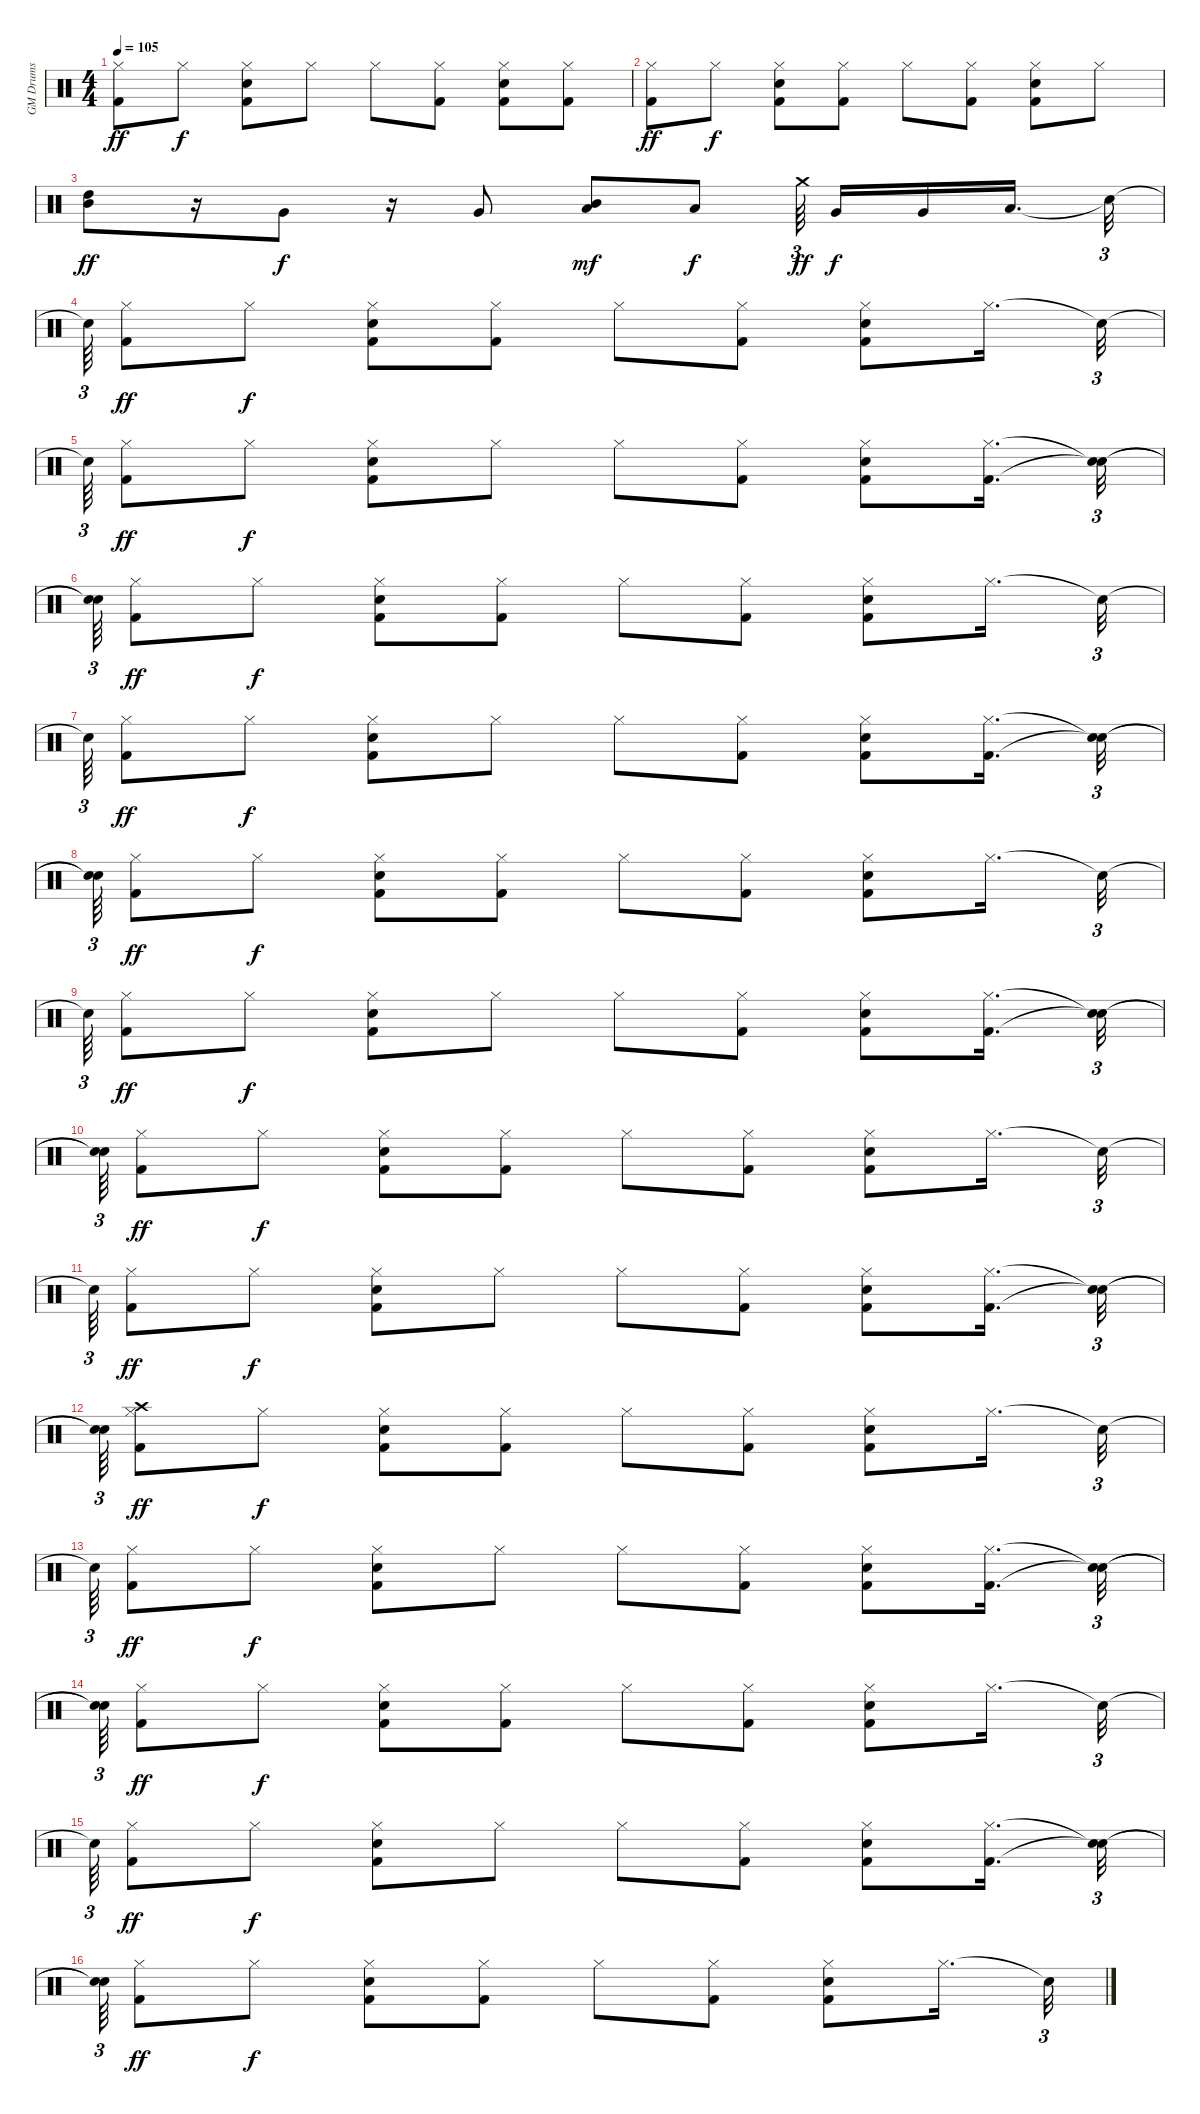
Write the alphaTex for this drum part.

\track ("GM Drums" "GM Drums") {instrument percussion}
\staff {score}
\articulation defaults
\ts (4 4)
\tempo 105
\clef neutral
\ks c
("Kick (hit) 2" "Hi-Hat (closed)").8{dy ff} "Hi-Hat (closed)".8{dy f} ("Kick (hit) 2" "Electric Snare (hit)" "Hi-Hat (closed)").8 "Hi-Hat (closed)".8 "Hi-Hat (closed)".8 ("Kick (hit) 2" "Hi-Hat (closed)").8 ("Kick (hit) 2" "Electric Snare (hit)" "Hi-Hat (closed)").8 ("Kick (hit) 2" "Hi-Hat (closed)").8 |
("Kick (hit) 2" "Hi-Hat (closed)").8{dy ff} "Hi-Hat (closed)".8{dy f} ("Kick (hit) 2" "Electric Snare (hit)" "Hi-Hat (closed)").8 ("Kick (hit) 2" "Hi-Hat (closed)").8 "Hi-Hat (closed)".8 ("Kick (hit) 2" "Hi-Hat (closed)").8 ("Kick (hit) 2" "Electric Snare (hit)" "Hi-Hat (closed)").8 "Hi-Hat (closed)".8 |
("Mid Tom (hit)" "High Tom (hit)").8{dy ff} r.16 "Very Low Tom (hit)".8{dy f} r.16 "Very Low Tom (hit)".8 ("Low Tom (hit)" "Mid Tom (hit)").8{dy mf} "Low Tom (hit)".8{dy f} "Crash medium (hit)".64{tu (3 2) dy ff beam splitsecondary} "Very Low Tom (hit)".16{dy f} "Very Low Tom (hit)".16 "Low Floor Tom (hit)".16{d beam splitsecondary} "Snare (hit)"{t}.32{tu (3 2)} |
"Snare (hit)"{t}.64{tu (3 2)} ("Kick (hit) 2" "Hi-Hat (closed)").8{dy ff} "Hi-Hat (closed)".8{dy f} ("Kick (hit) 2" "Electric Snare (hit)" "Hi-Hat (closed)").8 ("Kick (hit) 2" "Hi-Hat (closed)").8 "Hi-Hat (closed)".8 ("Kick (hit) 2" "Hi-Hat (closed)").8 ("Kick (hit) 2" "Electric Snare (hit)" "Hi-Hat (closed)").8 "Hi-Hat (closed)".16{d} "Snare (hit)"{t}.32{tu (3 2)} |
"Snare (hit)"{t}.64{tu (3 2)} ("Kick (hit) 2" "Hi-Hat (closed)").8{dy ff} "Hi-Hat (closed)".8{dy f} ("Kick (hit) 2" "Electric Snare (hit)" "Hi-Hat (closed)").8 "Hi-Hat (closed)".8 "Hi-Hat (closed)".8 ("Kick (hit) 2" "Hi-Hat (closed)").8 ("Kick (hit) 2" "Electric Snare (hit)" "Hi-Hat (closed)").8 ("Kick (hit) 2" "Hi-Hat (closed)").16{d} ("Snare (hit)"{t} "Snare (hit)"{t}).32{tu (3 2)} |
("Snare (hit)"{t} "Snare (hit)"{t}).64{tu (3 2)} ("Kick (hit) 2" "Hi-Hat (closed)").8{dy ff} "Hi-Hat (closed)".8{dy f} ("Kick (hit) 2" "Electric Snare (hit)" "Hi-Hat (closed)").8 ("Kick (hit) 2" "Hi-Hat (closed)").8 "Hi-Hat (closed)".8 ("Kick (hit) 2" "Hi-Hat (closed)").8 ("Kick (hit) 2" "Electric Snare (hit)" "Hi-Hat (closed)").8 "Hi-Hat (closed)".16{d} "Snare (hit)"{t}.32{tu (3 2)} |
"Snare (hit)"{t}.64{tu (3 2)} ("Kick (hit) 2" "Hi-Hat (closed)").8{dy ff} "Hi-Hat (closed)".8{dy f} ("Kick (hit) 2" "Electric Snare (hit)" "Hi-Hat (closed)").8 "Hi-Hat (closed)".8 "Hi-Hat (closed)".8 ("Kick (hit) 2" "Hi-Hat (closed)").8 ("Kick (hit) 2" "Electric Snare (hit)" "Hi-Hat (closed)").8 ("Kick (hit) 2" "Hi-Hat (closed)").16{d} ("Snare (hit)"{t} "Snare (hit)"{t}).32{tu (3 2)} |
("Snare (hit)"{t} "Snare (hit)"{t}).64{tu (3 2)} ("Kick (hit) 2" "Hi-Hat (closed)").8{dy ff} "Hi-Hat (closed)".8{dy f} ("Kick (hit) 2" "Electric Snare (hit)" "Hi-Hat (closed)").8 ("Kick (hit) 2" "Hi-Hat (closed)").8 "Hi-Hat (closed)".8 ("Kick (hit) 2" "Hi-Hat (closed)").8 ("Kick (hit) 2" "Electric Snare (hit)" "Hi-Hat (closed)").8 "Hi-Hat (closed)".16{d} "Snare (hit)"{t}.32{tu (3 2)} |
"Snare (hit)"{t}.64{tu (3 2)} ("Kick (hit) 2" "Hi-Hat (closed)").8{dy ff} "Hi-Hat (closed)".8{dy f} ("Kick (hit) 2" "Electric Snare (hit)" "Hi-Hat (closed)").8 "Hi-Hat (closed)".8 "Hi-Hat (closed)".8 ("Kick (hit) 2" "Hi-Hat (closed)").8 ("Kick (hit) 2" "Electric Snare (hit)" "Hi-Hat (closed)").8 ("Kick (hit) 2" "Hi-Hat (closed)").16{d} ("Snare (hit)"{t} "Snare (hit)"{t}).32{tu (3 2)} |
("Snare (hit)"{t} "Snare (hit)"{t}).64{tu (3 2)} ("Kick (hit) 2" "Hi-Hat (closed)").8{dy ff} "Hi-Hat (closed)".8{dy f} ("Kick (hit) 2" "Electric Snare (hit)" "Hi-Hat (closed)").8 ("Kick (hit) 2" "Hi-Hat (closed)").8 "Hi-Hat (closed)".8 ("Kick (hit) 2" "Hi-Hat (closed)").8 ("Kick (hit) 2" "Electric Snare (hit)" "Hi-Hat (closed)").8 "Hi-Hat (closed)".16{d} "Snare (hit)"{t}.32{tu (3 2)} |
"Snare (hit)"{t}.64{tu (3 2)} ("Kick (hit) 2" "Hi-Hat (closed)").8{dy ff} "Hi-Hat (closed)".8{dy f} ("Kick (hit) 2" "Electric Snare (hit)" "Hi-Hat (closed)").8 "Hi-Hat (closed)".8 "Hi-Hat (closed)".8 ("Kick (hit) 2" "Hi-Hat (closed)").8 ("Kick (hit) 2" "Electric Snare (hit)" "Hi-Hat (closed)").8 ("Kick (hit) 2" "Hi-Hat (closed)").16{d} ("Snare (hit)"{t} "Snare (hit)"{t}).32{tu (3 2)} |
("Snare (hit)"{t} "Snare (hit)"{t}).64{tu (3 2)} ("Crash high (hit)" "Kick (hit) 2" "Hi-Hat (closed)").8{dy ff} "Hi-Hat (closed)".8{dy f} ("Kick (hit) 2" "Electric Snare (hit)" "Hi-Hat (closed)").8 ("Kick (hit) 2" "Hi-Hat (closed)").8 "Hi-Hat (closed)".8 ("Kick (hit) 2" "Hi-Hat (closed)").8 ("Kick (hit) 2" "Electric Snare (hit)" "Hi-Hat (closed)").8 "Hi-Hat (closed)".16{d} "Snare (hit)"{t}.32{tu (3 2)} |
"Snare (hit)"{t}.64{tu (3 2)} ("Kick (hit) 2" "Hi-Hat (closed)").8{dy ff} "Hi-Hat (closed)".8{dy f} ("Kick (hit) 2" "Electric Snare (hit)" "Hi-Hat (closed)").8 "Hi-Hat (closed)".8 "Hi-Hat (closed)".8 ("Kick (hit) 2" "Hi-Hat (closed)").8 ("Kick (hit) 2" "Electric Snare (hit)" "Hi-Hat (closed)").8 ("Kick (hit) 2" "Hi-Hat (closed)").16{d} ("Snare (hit)"{t} "Snare (hit)"{t}).32{tu (3 2)} |
("Snare (hit)"{t} "Snare (hit)"{t}).64{tu (3 2)} ("Kick (hit) 2" "Hi-Hat (closed)").8{dy ff} "Hi-Hat (closed)".8{dy f} ("Kick (hit) 2" "Electric Snare (hit)" "Hi-Hat (closed)").8 ("Kick (hit) 2" "Hi-Hat (closed)").8 "Hi-Hat (closed)".8 ("Kick (hit) 2" "Hi-Hat (closed)").8 ("Kick (hit) 2" "Electric Snare (hit)" "Hi-Hat (closed)").8 "Hi-Hat (closed)".16{d} "Snare (hit)"{t}.32{tu (3 2)} |
"Snare (hit)"{t}.64{tu (3 2)} ("Kick (hit) 2" "Hi-Hat (closed)").8{dy ff} "Hi-Hat (closed)".8{dy f} ("Kick (hit) 2" "Electric Snare (hit)" "Hi-Hat (closed)").8 "Hi-Hat (closed)".8 "Hi-Hat (closed)".8 ("Kick (hit) 2" "Hi-Hat (closed)").8 ("Kick (hit) 2" "Electric Snare (hit)" "Hi-Hat (closed)").8 ("Kick (hit) 2" "Hi-Hat (closed)").16{d} ("Snare (hit)"{t} "Snare (hit)"{t}).32{tu (3 2)} |
("Snare (hit)"{t} "Snare (hit)"{t}).64{tu (3 2)} ("Kick (hit) 2" "Hi-Hat (closed)").8{dy ff} "Hi-Hat (closed)".8{dy f} ("Kick (hit) 2" "Electric Snare (hit)" "Hi-Hat (closed)").8 ("Kick (hit) 2" "Hi-Hat (closed)").8 "Hi-Hat (closed)".8 ("Kick (hit) 2" "Hi-Hat (closed)").8 ("Kick (hit) 2" "Electric Snare (hit)" "Hi-Hat (closed)").8 "Hi-Hat (closed)".16{d} "Snare (hit)"{t}.32{tu (3 2)}
